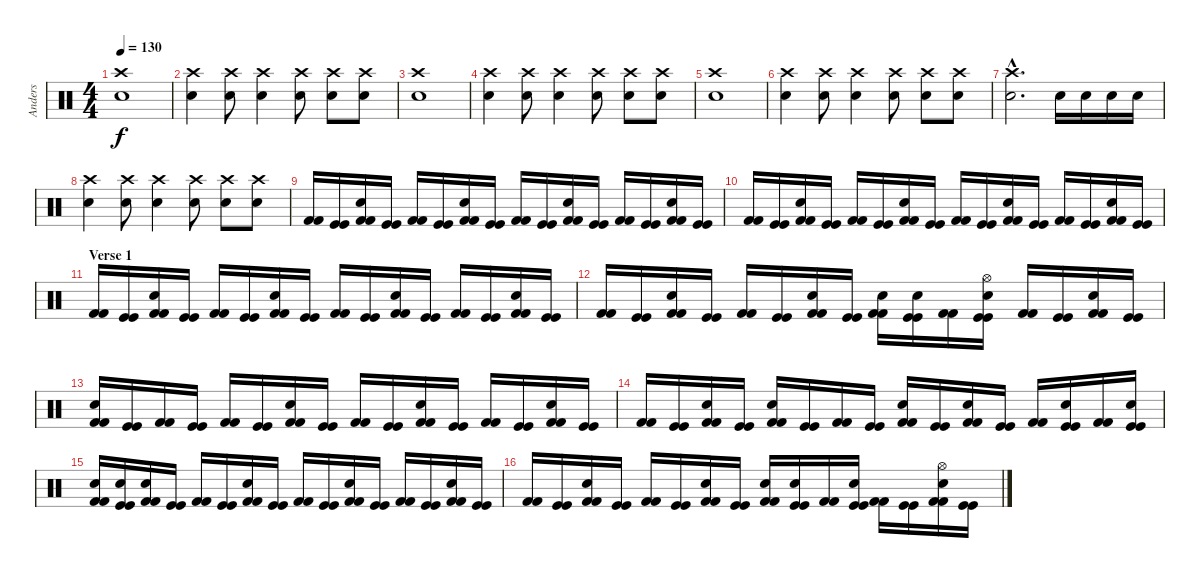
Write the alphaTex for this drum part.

\track ("Anders" "Anders") {instrument percussion}
\staff {score}
\articulation defaults
\ts (4 4)
\tempo 130
\clef neutral
\ks c
("Crash high (hit)" "Snare (hit) 2").1{dy f} |
("Crash high (hit)" "Snare (hit) 2").4 ("Crash high (hit)" "Snare (hit) 2").8 ("Crash high (hit)" "Snare (hit) 2").4 ("Crash high (hit)" "Snare (hit) 2").8 ("Crash high (hit)" "Snare (hit) 2").8 ("Crash high (hit)" "Snare (hit) 2").8 |
("Crash high (hit)" "Snare (hit) 2").1 |
("Crash high (hit)" "Snare (hit) 2").4 ("Crash high (hit)" "Snare (hit) 2").8 ("Crash high (hit)" "Snare (hit) 2").4 ("Crash high (hit)" "Snare (hit) 2").8 ("Crash high (hit)" "Snare (hit) 2").8 ("Crash high (hit)" "Snare (hit) 2").8 |
("Crash high (hit)" "Snare (hit) 2").1 |
("Crash high (hit)" "Snare (hit) 2").4 ("Crash high (hit)" "Snare (hit) 2").8 ("Crash high (hit)" "Snare (hit) 2").4 ("Crash high (hit)" "Snare (hit) 2").8 ("Crash high (hit)" "Snare (hit) 2").8 ("Crash high (hit)" "Snare (hit) 2").8 |
("Crash high (hit)"{hac} "Snare (hit) 2"{hac}).2{d} "Snare (hit) 2".16 "Snare (hit) 2".16 "Snare (hit) 2".16 "Snare (hit) 2".16 |
("Crash high (hit)" "Snare (hit) 2").4 ("Crash high (hit)" "Snare (hit) 2").8 ("Crash high (hit)" "Snare (hit) 2").4 ("Crash high (hit)" "Snare (hit) 2").8 ("Crash high (hit)" "Snare (hit) 2").8 ("Crash high (hit)" "Snare (hit) 2").8 |
("Kick (hit) 2" "Kick (hit) 2").16 ("Kick (hit)" "Kick (hit)").16 ("Snare (hit) 2" "Kick (hit) 2" "Kick (hit) 2").16 ("Kick (hit)" "Kick (hit)").16 ("Kick (hit) 2" "Kick (hit) 2").16 ("Kick (hit)" "Kick (hit)").16 ("Snare (hit) 2" "Kick (hit) 2" "Kick (hit) 2").16 ("Kick (hit)" "Kick (hit)").16 ("Kick (hit) 2" "Kick (hit) 2").16 ("Kick (hit)" "Kick (hit)").16 ("Snare (hit) 2" "Kick (hit) 2" "Kick (hit) 2").16 ("Kick (hit)" "Kick (hit)").16 ("Kick (hit) 2" "Kick (hit) 2").16 ("Kick (hit)" "Kick (hit)").16 ("Snare (hit) 2" "Kick (hit) 2" "Kick (hit) 2").16 ("Kick (hit)" "Kick (hit)").16 |
("Kick (hit) 2" "Kick (hit) 2").16 ("Kick (hit)" "Kick (hit)").16 ("Snare (hit) 2" "Kick (hit) 2" "Kick (hit) 2").16 ("Kick (hit)" "Kick (hit)").16 ("Kick (hit) 2" "Kick (hit) 2").16 ("Kick (hit)" "Kick (hit)").16 ("Snare (hit) 2" "Kick (hit) 2" "Kick (hit) 2").16 ("Kick (hit)" "Kick (hit)").16 ("Kick (hit) 2" "Kick (hit) 2").16 ("Kick (hit)" "Kick (hit)").16 ("Snare (hit) 2" "Kick (hit) 2" "Kick (hit) 2").16 ("Kick (hit)" "Kick (hit)").16 ("Kick (hit) 2" "Kick (hit) 2").16 ("Kick (hit)" "Kick (hit)").16 ("Snare (hit) 2" "Kick (hit) 2" "Kick (hit) 2").16 ("Kick (hit)" "Kick (hit)").16 |
\section ("" "Verse 1")
("Kick (hit) 2" "Kick (hit) 2").16 ("Kick (hit)" "Kick (hit)").16 ("Snare (hit) 2" "Kick (hit) 2" "Kick (hit) 2").16 ("Kick (hit)" "Kick (hit)").16 ("Kick (hit) 2" "Kick (hit) 2").16 ("Kick (hit)" "Kick (hit)").16 ("Snare (hit) 2" "Kick (hit) 2" "Kick (hit) 2").16 ("Kick (hit)" "Kick (hit)").16 ("Kick (hit) 2" "Kick (hit) 2").16 ("Kick (hit)" "Kick (hit)").16 ("Snare (hit) 2" "Kick (hit) 2" "Kick (hit) 2").16 ("Kick (hit)" "Kick (hit)").16 ("Kick (hit) 2" "Kick (hit) 2").16 ("Kick (hit)" "Kick (hit)").16 ("Snare (hit) 2" "Kick (hit) 2" "Kick (hit) 2").16 ("Kick (hit)" "Kick (hit)").16 |
("Kick (hit) 2" "Kick (hit) 2").16 ("Kick (hit)" "Kick (hit)").16 ("Snare (hit) 2" "Kick (hit) 2" "Kick (hit) 2").16 ("Kick (hit)" "Kick (hit)").16 ("Kick (hit) 2" "Kick (hit) 2").16 ("Kick (hit)" "Kick (hit)").16 ("Snare (hit) 2" "Kick (hit) 2" "Kick (hit) 2").16 ("Kick (hit)" "Kick (hit)").16 ("Snare (hit) 2" "Kick (hit) 2" "Kick (hit) 2").16 ("Snare (hit) 2" "Kick (hit)" "Kick (hit)").16 ("Kick (hit) 2" "Kick (hit) 2").16 ("Hi-Hat (open)" "Snare (hit) 2" "Kick (hit)" "Kick (hit)").16 ("Kick (hit) 2" "Kick (hit) 2").16 ("Kick (hit)" "Kick (hit)").16 ("Snare (hit) 2" "Kick (hit) 2" "Kick (hit) 2").16 ("Kick (hit)" "Kick (hit)").16 |
("Snare (hit) 2" "Kick (hit) 2" "Kick (hit) 2").16 ("Kick (hit)" "Kick (hit)").16 ("Kick (hit) 2" "Kick (hit) 2").16 ("Kick (hit)" "Kick (hit)").16 ("Kick (hit) 2" "Kick (hit) 2").16 ("Kick (hit)" "Kick (hit)").16 ("Snare (hit) 2" "Kick (hit) 2" "Kick (hit) 2").16 ("Kick (hit)" "Kick (hit)").16 ("Kick (hit) 2" "Kick (hit) 2").16 ("Kick (hit)" "Kick (hit)").16 ("Snare (hit) 2" "Kick (hit) 2" "Kick (hit) 2").16 ("Kick (hit)" "Kick (hit)").16 ("Kick (hit) 2" "Kick (hit) 2").16 ("Kick (hit)" "Kick (hit)").16 ("Snare (hit) 2" "Kick (hit) 2" "Kick (hit) 2").16 ("Kick (hit)" "Kick (hit)").16 |
("Kick (hit) 2" "Kick (hit) 2").16 ("Kick (hit)" "Kick (hit)").16 ("Snare (hit) 2" "Kick (hit) 2" "Kick (hit) 2").16 ("Kick (hit)" "Kick (hit)").16 ("Snare (hit) 2" "Kick (hit) 2" "Kick (hit) 2").16 ("Kick (hit)" "Kick (hit)").16 ("Kick (hit) 2" "Kick (hit) 2").16 ("Kick (hit)" "Kick (hit)").16 ("Snare (hit) 2" "Kick (hit) 2" "Kick (hit) 2").16 ("Kick (hit)" "Kick (hit)").16 ("Snare (hit) 2" "Kick (hit) 2" "Kick (hit) 2").16 ("Kick (hit)" "Kick (hit)").16 ("Kick (hit) 2" "Kick (hit) 2").16 ("Snare (hit) 2" "Kick (hit)" "Kick (hit)").16 ("Kick (hit) 2" "Kick (hit) 2").16 ("Snare (hit) 2" "Kick (hit)" "Kick (hit)").16 |
("Snare (hit) 2" "Kick (hit) 2" "Kick (hit) 2").16 ("Snare (hit) 2" "Kick (hit)" "Kick (hit)").16 ("Snare (hit) 2" "Kick (hit) 2" "Kick (hit) 2").16 ("Kick (hit)" "Kick (hit)").16 ("Kick (hit) 2" "Kick (hit) 2").16 ("Kick (hit)" "Kick (hit)").16 ("Snare (hit) 2" "Kick (hit) 2" "Kick (hit) 2").16 ("Kick (hit)" "Kick (hit)").16 ("Kick (hit) 2" "Kick (hit) 2").16 ("Kick (hit)" "Kick (hit)").16 ("Snare (hit) 2" "Kick (hit) 2" "Kick (hit) 2").16 ("Kick (hit)" "Kick (hit)").16 ("Kick (hit) 2" "Kick (hit) 2").16 ("Kick (hit)" "Kick (hit)").16 ("Snare (hit) 2" "Kick (hit) 2" "Kick (hit) 2").16 ("Kick (hit)" "Kick (hit)").16 |
("Kick (hit) 2" "Kick (hit) 2").16 ("Kick (hit)" "Kick (hit)").16 ("Snare (hit) 2" "Kick (hit) 2" "Kick (hit) 2").16 ("Kick (hit)" "Kick (hit)").16 ("Kick (hit) 2" "Kick (hit) 2").16 ("Kick (hit)" "Kick (hit)").16 ("Snare (hit) 2" "Kick (hit) 2" "Kick (hit) 2").16 ("Kick (hit)" "Kick (hit)").16 ("Snare (hit) 2" "Kick (hit) 2" "Kick (hit) 2").16 ("Snare (hit) 2" "Kick (hit)" "Kick (hit)").16 ("Kick (hit) 2" "Kick (hit) 2").16 ("Snare (hit) 2" "Kick (hit)" "Kick (hit)").16 ("Kick (hit) 2" "Kick (hit) 2").16 ("Kick (hit)" "Kick (hit)").16 ("Hi-Hat (open)" "Snare (hit) 2" "Kick (hit) 2" "Kick (hit) 2").16 ("Kick (hit)" "Kick (hit)").16
